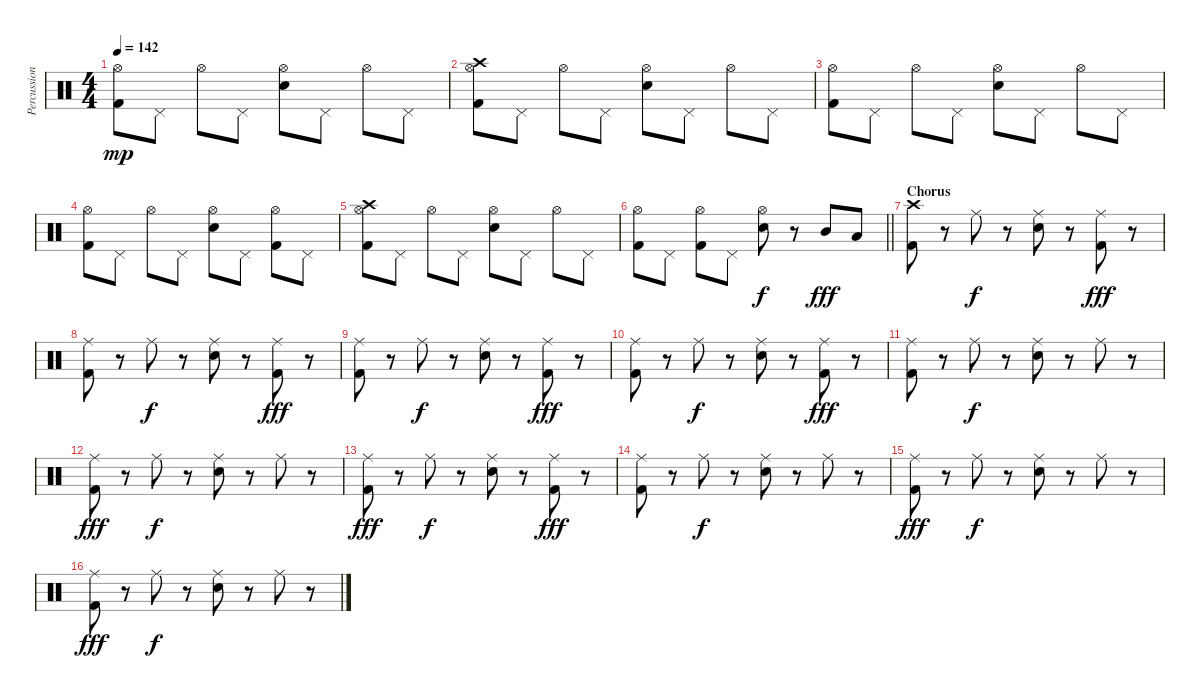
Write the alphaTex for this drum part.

\track ("Percussion" "Percussion") {instrument percussion}
\staff {score}
\articulation defaults
\ts (4 4)
\tempo 142
\clef neutral
\ks c
("Kick (hit) 2" "Hi-Hat (open)").8{dy mp} "Pedal Hi-Hat (hit)".8 "Hi-Hat (open)".8 "Pedal Hi-Hat (hit)".8 ("Electric Snare (hit)" "Hi-Hat (open)").8 "Pedal Hi-Hat (hit)".8 "Hi-Hat (open)".8 "Pedal Hi-Hat (hit)".8 |
("Kick (hit) 2" "Hi-Hat (open)" "Crash high (hit)").8 "Pedal Hi-Hat (hit)".8 "Hi-Hat (open)".8 "Pedal Hi-Hat (hit)".8 ("Electric Snare (hit)" "Hi-Hat (open)").8 "Pedal Hi-Hat (hit)".8 "Hi-Hat (open)".8 "Pedal Hi-Hat (hit)".8 |
("Kick (hit) 2" "Hi-Hat (open)").8 "Pedal Hi-Hat (hit)".8 "Hi-Hat (open)".8 "Pedal Hi-Hat (hit)".8 ("Electric Snare (hit)" "Hi-Hat (open)").8 "Pedal Hi-Hat (hit)".8 "Hi-Hat (open)".8 "Pedal Hi-Hat (hit)".8 |
("Kick (hit) 2" "Hi-Hat (open)").8 "Pedal Hi-Hat (hit)".8 "Hi-Hat (open)".8 "Pedal Hi-Hat (hit)".8 ("Electric Snare (hit)" "Hi-Hat (open)").8 "Pedal Hi-Hat (hit)".8 ("Kick (hit) 2" "Hi-Hat (open)").8 "Pedal Hi-Hat (hit)".8 |
("Kick (hit) 2" "Hi-Hat (open)" "Crash high (hit)").8 "Pedal Hi-Hat (hit)".8 "Hi-Hat (open)".8 "Pedal Hi-Hat (hit)".8 ("Electric Snare (hit)" "Hi-Hat (open)").8 "Pedal Hi-Hat (hit)".8 "Hi-Hat (open)".8 "Pedal Hi-Hat (hit)".8 |
\barLineRight lightlight
("Kick (hit) 2" "Hi-Hat (open)").8 "Pedal Hi-Hat (hit)".8 ("Kick (hit) 2" "Hi-Hat (open)").8 "Pedal Hi-Hat (hit)".8 ("Electric Snare (hit)" "Hi-Hat (open)").8{dy f} r.8 "Mid Tom (hit)".8{dy fff} "Low Tom (hit)".8 |
\section ("" "Chorus")
("Kick (hit) 2" "Crash high (hit)").8 r.8 "Ride (middle)".8{dy f} r.8 ("Electric Snare (hit)" "Ride (middle)").8 r.8 ("Kick (hit) 2" "Ride (middle)").8{dy fff} r.8 |
("Kick (hit) 2" "Ride (middle)").8 r.8 "Ride (middle)".8{dy f} r.8 ("Electric Snare (hit)" "Ride (middle)").8 r.8 ("Kick (hit) 2" "Ride (middle)").8{dy fff} r.8 |
("Kick (hit) 2" "Ride (middle)").8 r.8 "Ride (middle)".8{dy f} r.8 ("Electric Snare (hit)" "Ride (middle)").8 r.8 ("Kick (hit) 2" "Ride (middle)").8{dy fff} r.8 |
("Kick (hit) 2" "Ride (middle)").8 r.8 "Ride (middle)".8{dy f} r.8 ("Electric Snare (hit)" "Ride (middle)").8 r.8 ("Kick (hit) 2" "Ride (middle)").8{dy fff} r.8 |
("Kick (hit) 2" "Ride (middle)").8 r.8 "Ride (middle)".8{dy f} r.8 ("Electric Snare (hit)" "Ride (middle)").8 r.8 "Ride (middle)".8 r.8 |
("Kick (hit) 2" "Ride (middle)").8{dy fff} r.8 "Ride (middle)".8{dy f} r.8 ("Electric Snare (hit)" "Ride (middle)").8 r.8 "Ride (middle)".8 r.8 |
("Kick (hit) 2" "Ride (middle)").8{dy fff} r.8 "Ride (middle)".8{dy f} r.8 ("Electric Snare (hit)" "Ride (middle)").8 r.8 ("Kick (hit) 2" "Ride (middle)").8{dy fff} r.8 |
("Kick (hit) 2" "Ride (middle)").8 r.8 "Ride (middle)".8{dy f} r.8 ("Electric Snare (hit)" "Ride (middle)").8 r.8 "Ride (middle)".8 r.8 |
("Kick (hit) 2" "Ride (middle)").8{dy fff} r.8 "Ride (middle)".8{dy f} r.8 ("Electric Snare (hit)" "Ride (middle)").8 r.8 "Ride (middle)".8 r.8 |
("Kick (hit) 2" "Ride (middle)").8{dy fff} r.8 "Ride (middle)".8{dy f} r.8 ("Electric Snare (hit)" "Ride (middle)").8 r.8 "Ride (middle)".8 r.8
